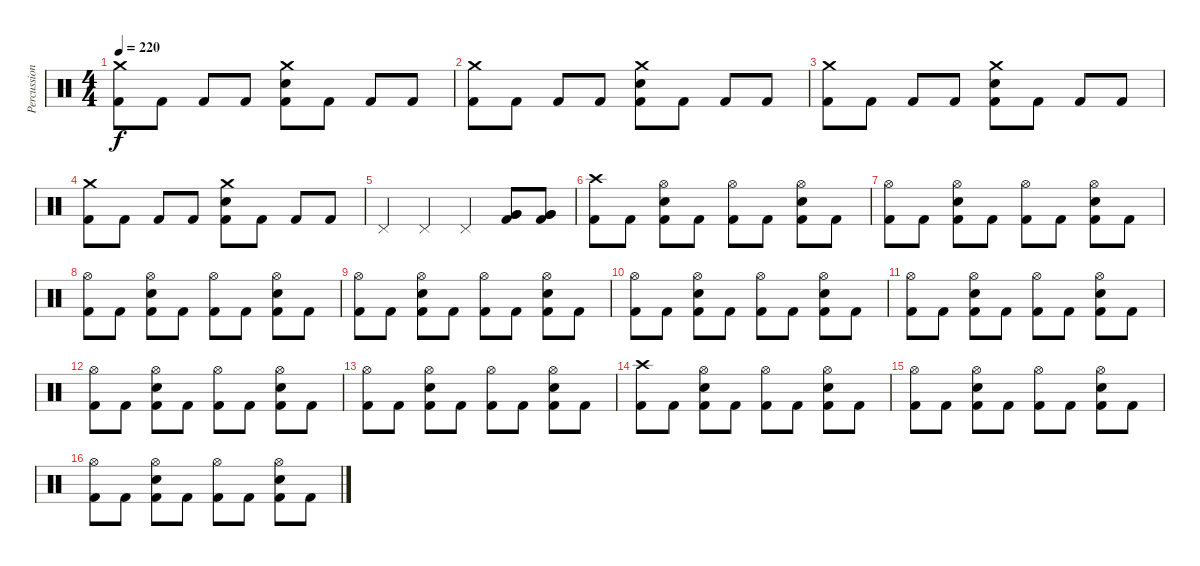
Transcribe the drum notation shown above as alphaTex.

\track ("Percussion" "Percussion") {instrument percussion}
\staff {score}
\articulation defaults
\ts (4 4)
\tempo 220
\clef neutral
\ks c
("Crash medium (hit)" "Kick (hit) 2").8{dy f} "Kick (hit) 2".8 "Kick (hit) 2".8 "Kick (hit) 2".8 ("Crash medium (hit)" "Snare (hit) 2" "Kick (hit) 2").8 "Kick (hit) 2".8 "Kick (hit) 2".8 "Kick (hit) 2".8 |
("Crash medium (hit)" "Kick (hit) 2").8 "Kick (hit) 2".8 "Kick (hit) 2".8 "Kick (hit) 2".8 ("Crash medium (hit)" "Snare (hit) 2" "Kick (hit) 2").8 "Kick (hit) 2".8 "Kick (hit) 2".8 "Kick (hit) 2".8 |
("Crash medium (hit)" "Kick (hit) 2").8 "Kick (hit) 2".8 "Kick (hit) 2".8 "Kick (hit) 2".8 ("Crash medium (hit)" "Snare (hit) 2" "Kick (hit) 2").8 "Kick (hit) 2".8 "Kick (hit) 2".8 "Kick (hit) 2".8 |
("Crash medium (hit)" "Kick (hit) 2").8 "Kick (hit) 2".8 "Kick (hit) 2".8 "Kick (hit) 2".8 ("Crash medium (hit)" "Snare (hit) 2" "Kick (hit) 2").8 "Kick (hit) 2".8 "Kick (hit) 2".8 "Kick (hit) 2".8 |
"Pedal Hi-Hat (hit)".4 "Pedal Hi-Hat (hit)".4 "Pedal Hi-Hat (hit)".4 ("Very Low Tom (hit)" "Very Low Tom (hit)" "Kick (hit) 2").8 ("Very Low Tom (hit)" "Very Low Tom (hit)" "Kick (hit) 2").8 |
("Crash high (hit)" "Kick (hit) 2").8 "Kick (hit) 2".8 ("Snare (hit) 2" "Hi-Hat (open)" "Kick (hit) 2").8 "Kick (hit) 2".8 ("Hi-Hat (open)" "Kick (hit) 2").8 "Kick (hit) 2".8 ("Snare (hit) 2" "Hi-Hat (open)" "Kick (hit) 2").8 "Kick (hit) 2".8 |
("Hi-Hat (open)" "Kick (hit) 2").8 "Kick (hit) 2".8 ("Snare (hit) 2" "Hi-Hat (open)" "Kick (hit) 2").8 "Kick (hit) 2".8 ("Hi-Hat (open)" "Kick (hit) 2").8 "Kick (hit) 2".8 ("Snare (hit) 2" "Hi-Hat (open)" "Kick (hit) 2").8 "Kick (hit) 2".8 |
("Hi-Hat (open)" "Kick (hit) 2").8 "Kick (hit) 2".8 ("Snare (hit) 2" "Hi-Hat (open)" "Kick (hit) 2").8 "Kick (hit) 2".8 ("Hi-Hat (open)" "Kick (hit) 2").8 "Kick (hit) 2".8 ("Snare (hit) 2" "Hi-Hat (open)" "Kick (hit) 2").8 "Kick (hit) 2".8 |
("Hi-Hat (open)" "Kick (hit) 2").8 "Kick (hit) 2".8 ("Snare (hit) 2" "Hi-Hat (open)" "Kick (hit) 2").8 "Kick (hit) 2".8 ("Hi-Hat (open)" "Kick (hit) 2").8 "Kick (hit) 2".8 ("Snare (hit) 2" "Hi-Hat (open)" "Kick (hit) 2").8 "Kick (hit) 2".8 |
("Hi-Hat (open)" "Kick (hit) 2").8 "Kick (hit) 2".8 ("Snare (hit) 2" "Hi-Hat (open)" "Kick (hit) 2").8 "Kick (hit) 2".8 ("Hi-Hat (open)" "Kick (hit) 2").8 "Kick (hit) 2".8 ("Snare (hit) 2" "Hi-Hat (open)" "Kick (hit) 2").8 "Kick (hit) 2".8 |
("Hi-Hat (open)" "Kick (hit) 2").8 "Kick (hit) 2".8 ("Snare (hit) 2" "Hi-Hat (open)" "Kick (hit) 2").8 "Kick (hit) 2".8 ("Hi-Hat (open)" "Kick (hit) 2").8 "Kick (hit) 2".8 ("Snare (hit) 2" "Hi-Hat (open)" "Kick (hit) 2").8 "Kick (hit) 2".8 |
("Hi-Hat (open)" "Kick (hit) 2").8 "Kick (hit) 2".8 ("Snare (hit) 2" "Hi-Hat (open)" "Kick (hit) 2").8 "Kick (hit) 2".8 ("Hi-Hat (open)" "Kick (hit) 2").8 "Kick (hit) 2".8 ("Snare (hit) 2" "Hi-Hat (open)" "Kick (hit) 2").8 "Kick (hit) 2".8 |
("Hi-Hat (open)" "Kick (hit) 2").8 "Kick (hit) 2".8 ("Snare (hit) 2" "Hi-Hat (open)" "Kick (hit) 2").8 "Kick (hit) 2".8 ("Hi-Hat (open)" "Kick (hit) 2").8 "Kick (hit) 2".8 ("Snare (hit) 2" "Hi-Hat (open)" "Kick (hit) 2").8 "Kick (hit) 2".8 |
("Crash high (hit)" "Kick (hit) 2").8 "Kick (hit) 2".8 ("Snare (hit) 2" "Hi-Hat (open)" "Kick (hit) 2").8 "Kick (hit) 2".8 ("Hi-Hat (open)" "Kick (hit) 2").8 "Kick (hit) 2".8 ("Snare (hit) 2" "Hi-Hat (open)" "Kick (hit) 2").8 "Kick (hit) 2".8 |
("Hi-Hat (open)" "Kick (hit) 2").8 "Kick (hit) 2".8 ("Snare (hit) 2" "Hi-Hat (open)" "Kick (hit) 2").8 "Kick (hit) 2".8 ("Hi-Hat (open)" "Kick (hit) 2").8 "Kick (hit) 2".8 ("Snare (hit) 2" "Hi-Hat (open)" "Kick (hit) 2").8 "Kick (hit) 2".8 |
("Hi-Hat (open)" "Kick (hit) 2").8 "Kick (hit) 2".8 ("Snare (hit) 2" "Hi-Hat (open)" "Kick (hit) 2").8 "Kick (hit) 2".8 ("Hi-Hat (open)" "Kick (hit) 2").8 "Kick (hit) 2".8 ("Snare (hit) 2" "Hi-Hat (open)" "Kick (hit) 2").8 "Kick (hit) 2".8
